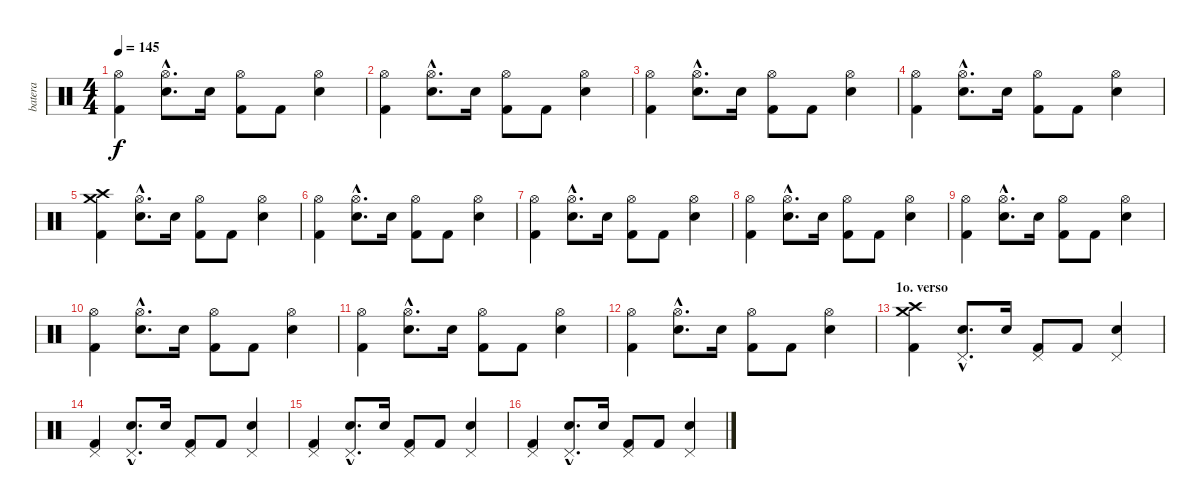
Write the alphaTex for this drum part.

\track ("batera" "batera") {instrument percussion}
\staff {score}
\articulation defaults
\ts (4 4)
\tempo 145
\clef neutral
\ks c
("Kick (hit) 2" "Hi-Hat (open)").4{dy f} ("Snare (hit) 2"{hac} "Hi-Hat (open)"{hac}).8{d} "Snare (hit) 2".16 ("Kick (hit) 2" "Hi-Hat (open)").8 "Kick (hit) 2".8 ("Snare (hit) 2" "Hi-Hat (open)").4 |
("Kick (hit) 2" "Hi-Hat (open)").4 ("Snare (hit) 2"{hac} "Hi-Hat (open)"{hac}).8{d} "Snare (hit) 2".16 ("Kick (hit) 2" "Hi-Hat (open)").8 "Kick (hit) 2".8 ("Snare (hit) 2" "Hi-Hat (open)").4 |
("Kick (hit) 2" "Hi-Hat (open)").4 ("Snare (hit) 2"{hac} "Hi-Hat (open)"{hac}).8{d} "Snare (hit) 2".16 ("Kick (hit) 2" "Hi-Hat (open)").8 "Kick (hit) 2".8 ("Snare (hit) 2" "Hi-Hat (open)").4 |
("Kick (hit) 2" "Hi-Hat (open)").4 ("Snare (hit) 2"{hac} "Hi-Hat (open)"{hac}).8{d} "Snare (hit) 2".16 ("Kick (hit) 2" "Hi-Hat (open)").8 "Kick (hit) 2".8 ("Snare (hit) 2" "Hi-Hat (open)").4 |
("Crash high (hit)" "Crash medium (hit)" "Kick (hit) 2").4 ("Snare (hit) 2"{hac} "Hi-Hat (open)"{hac}).8{d} "Snare (hit) 2".16 ("Kick (hit) 2" "Hi-Hat (open)").8 "Kick (hit) 2".8 ("Snare (hit) 2" "Hi-Hat (open)").4 |
("Kick (hit) 2" "Hi-Hat (open)").4 ("Snare (hit) 2"{hac} "Hi-Hat (open)"{hac}).8{d} "Snare (hit) 2".16 ("Kick (hit) 2" "Hi-Hat (open)").8 "Kick (hit) 2".8 ("Snare (hit) 2" "Hi-Hat (open)").4 |
("Kick (hit) 2" "Hi-Hat (open)").4 ("Snare (hit) 2"{hac} "Hi-Hat (open)"{hac}).8{d} "Snare (hit) 2".16 ("Kick (hit) 2" "Hi-Hat (open)").8 "Kick (hit) 2".8 ("Snare (hit) 2" "Hi-Hat (open)").4 |
("Kick (hit) 2" "Hi-Hat (open)").4 ("Snare (hit) 2"{hac} "Hi-Hat (open)"{hac}).8{d} "Snare (hit) 2".16 ("Kick (hit) 2" "Hi-Hat (open)").8 "Kick (hit) 2".8 ("Snare (hit) 2" "Hi-Hat (open)").4 |
("Kick (hit) 2" "Hi-Hat (open)").4 ("Snare (hit) 2"{hac} "Hi-Hat (open)"{hac}).8{d} "Snare (hit) 2".16 ("Kick (hit) 2" "Hi-Hat (open)").8 "Kick (hit) 2".8 ("Snare (hit) 2" "Hi-Hat (open)").4 |
("Kick (hit) 2" "Hi-Hat (open)").4 ("Snare (hit) 2"{hac} "Hi-Hat (open)"{hac}).8{d} "Snare (hit) 2".16 ("Kick (hit) 2" "Hi-Hat (open)").8 "Kick (hit) 2".8 ("Snare (hit) 2" "Hi-Hat (open)").4 |
("Kick (hit) 2" "Hi-Hat (open)").4 ("Snare (hit) 2"{hac} "Hi-Hat (open)"{hac}).8{d} "Snare (hit) 2".16 ("Kick (hit) 2" "Hi-Hat (open)").8 "Kick (hit) 2".8 ("Snare (hit) 2" "Hi-Hat (open)").4 |
("Kick (hit) 2" "Hi-Hat (open)").4 ("Snare (hit) 2"{hac} "Hi-Hat (open)"{hac}).8{d} "Snare (hit) 2".16 ("Kick (hit) 2" "Hi-Hat (open)").8 "Kick (hit) 2".8 ("Snare (hit) 2" "Hi-Hat (open)").4 |
\section ("" "1o. verso")
("Crash high (hit)" "Crash medium (hit)" "Kick (hit) 2").4 ("Snare (hit) 2"{hac} "Pedal Hi-Hat (hit)"{hac}).8{d} "Snare (hit) 2".16 ("Kick (hit) 2" "Pedal Hi-Hat (hit)").8 "Kick (hit) 2".8 ("Snare (hit) 2" "Pedal Hi-Hat (hit)").4 |
("Kick (hit) 2" "Pedal Hi-Hat (hit)").4 ("Snare (hit) 2"{hac} "Pedal Hi-Hat (hit)"{hac}).8{d} "Snare (hit) 2".16 ("Kick (hit) 2" "Pedal Hi-Hat (hit)").8 "Kick (hit) 2".8 ("Snare (hit) 2" "Pedal Hi-Hat (hit)").4 |
("Kick (hit) 2" "Pedal Hi-Hat (hit)").4 ("Snare (hit) 2"{hac} "Pedal Hi-Hat (hit)"{hac}).8{d} "Snare (hit) 2".16 ("Kick (hit) 2" "Pedal Hi-Hat (hit)").8 "Kick (hit) 2".8 ("Snare (hit) 2" "Pedal Hi-Hat (hit)").4 |
("Kick (hit) 2" "Pedal Hi-Hat (hit)").4 ("Snare (hit) 2"{hac} "Pedal Hi-Hat (hit)"{hac}).8{d} "Snare (hit) 2".16 ("Kick (hit) 2" "Pedal Hi-Hat (hit)").8 "Kick (hit) 2".8 ("Snare (hit) 2" "Pedal Hi-Hat (hit)").4
